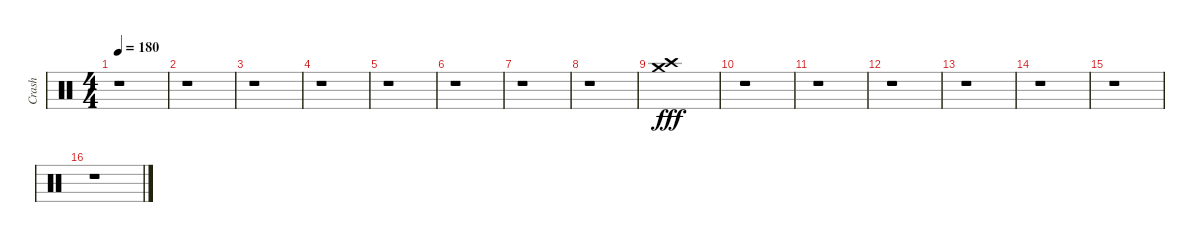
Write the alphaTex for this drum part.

\track ("Crash" "Crash") {instrument percussion}
\staff {score}
\articulation defaults
\ts (4 4)
\tempo 180
\clef neutral
\ks c
r.1{dy fff} |
r.1 |
r.1 |
r.1 |
r.1 |
r.1 |
r.1 |
r.1 |
("Crash high (hit)" "Crash medium (hit)").1 |
r.1 |
r.1 |
r.1 |
r.1 |
r.1 |
r.1 |
r.1
